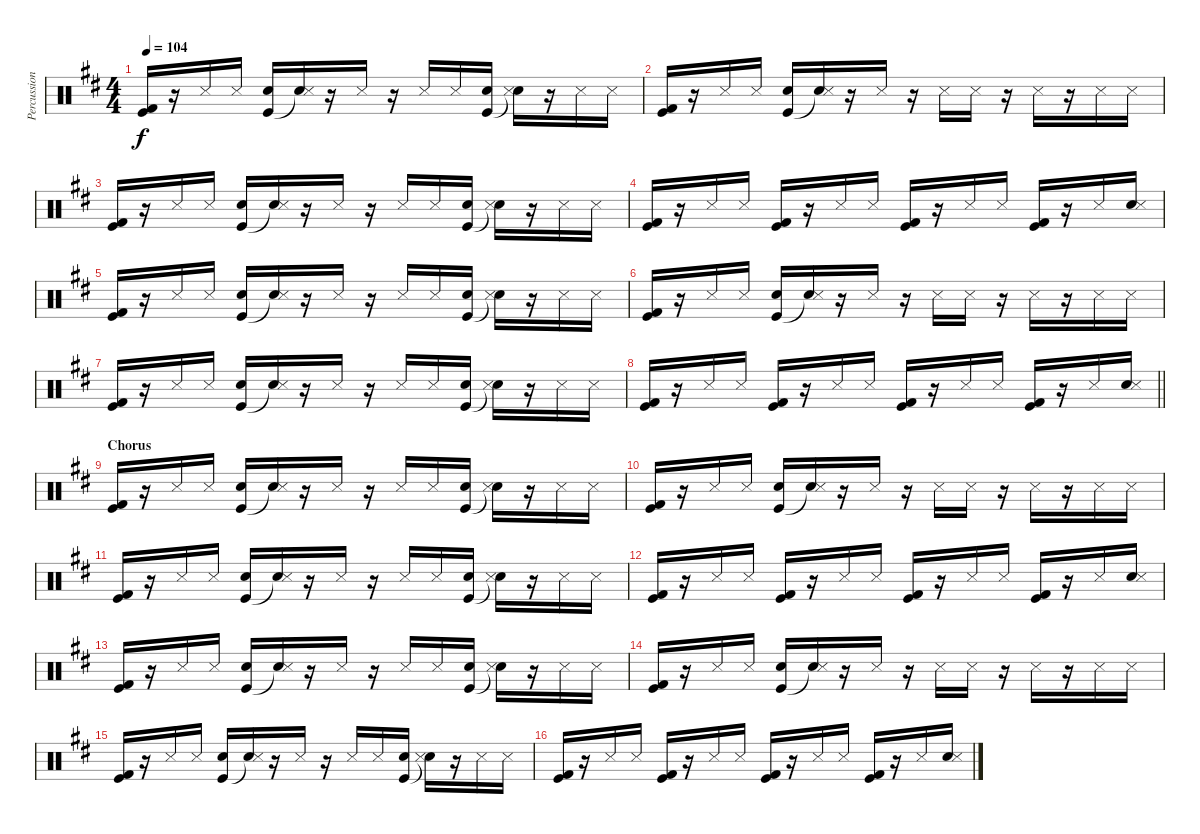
\track ("Percussion" "Percussion") {instrument percussion}
\staff {score}
\articulation defaults
\ts (4 4)
\tempo 104
\clef neutral
\ks d
("Kick (hit)" "Kick (hit) 2").16{dy f} r.16 "Snare (side stick) 3".16 "Snare (side stick) 3".16 ("Kick (hit)" "Electric Snare (hit)").16 ("Electric Snare (hit)"{t} "Snare (side stick) 3").16 r.16 "Snare (side stick) 3".16 r.16 "Snare (side stick) 3".16 "Snare (side stick) 3".16 ("Kick (hit)" "Electric Snare (hit)").16 ("Snare (hit)"{t} "Snare (side stick) 3").16 r.16 "Snare (side stick) 3".16 "Snare (side stick) 3".16 |
("Kick (hit)" "Kick (hit) 2").16 r.16 "Snare (side stick) 3".16 "Snare (side stick) 3".16 ("Kick (hit)" "Electric Snare (hit)").16 ("Electric Snare (hit)"{t} "Snare (side stick) 3").16 r.16 "Snare (side stick) 3".16 r.16 "Snare (side stick) 3".16 "Snare (side stick) 3".16 r.16 "Snare (side stick) 3".16 r.16 "Snare (side stick) 3".16 "Snare (side stick) 3".16 |
("Kick (hit)" "Kick (hit) 2").16 r.16 "Snare (side stick) 3".16 "Snare (side stick) 3".16 ("Kick (hit)" "Electric Snare (hit)").16 ("Electric Snare (hit)"{t} "Snare (side stick) 3").16 r.16 "Snare (side stick) 3".16 r.16 "Snare (side stick) 3".16 "Snare (side stick) 3".16 ("Kick (hit)" "Electric Snare (hit)").16 ("Snare (hit)"{t} "Snare (side stick) 3").16 r.16 "Snare (side stick) 3".16 "Snare (side stick) 3".16 |
("Kick (hit)" "Kick (hit) 2").16 r.16 "Snare (side stick) 3".16 "Snare (side stick) 3".16 ("Kick (hit)" "Kick (hit) 2").16 r.16 "Snare (side stick) 3".16 "Snare (side stick) 3".16 ("Kick (hit)" "Kick (hit) 2").16 r.16 "Snare (side stick) 3".16 "Snare (side stick) 3".16 ("Kick (hit)" "Kick (hit) 2").16 r.16 "Snare (side stick) 3".16 ("Electric Snare (hit)" "Snare (side stick) 3").16 |
("Kick (hit)" "Kick (hit) 2").16 r.16 "Snare (side stick) 3".16 "Snare (side stick) 3".16 ("Kick (hit)" "Electric Snare (hit)").16 ("Electric Snare (hit)"{t} "Snare (side stick) 3").16 r.16 "Snare (side stick) 3".16 r.16 "Snare (side stick) 3".16 "Snare (side stick) 3".16 ("Kick (hit)" "Electric Snare (hit)").16 ("Snare (hit)"{t} "Snare (side stick) 3").16 r.16 "Snare (side stick) 3".16 "Snare (side stick) 3".16 |
("Kick (hit)" "Kick (hit) 2").16 r.16 "Snare (side stick) 3".16 "Snare (side stick) 3".16 ("Kick (hit)" "Electric Snare (hit)").16 ("Electric Snare (hit)"{t} "Snare (side stick) 3").16 r.16 "Snare (side stick) 3".16 r.16 "Snare (side stick) 3".16 "Snare (side stick) 3".16 r.16 "Snare (side stick) 3".16 r.16 "Snare (side stick) 3".16 "Snare (side stick) 3".16 |
("Kick (hit)" "Kick (hit) 2").16 r.16 "Snare (side stick) 3".16 "Snare (side stick) 3".16 ("Kick (hit)" "Electric Snare (hit)").16 ("Electric Snare (hit)"{t} "Snare (side stick) 3").16 r.16 "Snare (side stick) 3".16 r.16 "Snare (side stick) 3".16 "Snare (side stick) 3".16 ("Kick (hit)" "Electric Snare (hit)").16 ("Snare (hit)"{t} "Snare (side stick) 3").16 r.16 "Snare (side stick) 3".16 "Snare (side stick) 3".16 |
\barLineRight lightlight
("Kick (hit)" "Kick (hit) 2").16 r.16 "Snare (side stick) 3".16 "Snare (side stick) 3".16 ("Kick (hit)" "Kick (hit) 2").16 r.16 "Snare (side stick) 3".16 "Snare (side stick) 3".16 ("Kick (hit)" "Kick (hit) 2").16 r.16 "Snare (side stick) 3".16 "Snare (side stick) 3".16 ("Kick (hit)" "Kick (hit) 2").16 r.16 "Snare (side stick) 3".16 ("Electric Snare (hit)" "Snare (side stick) 3").16 |
\section ("" "Chorus")
("Kick (hit)" "Kick (hit) 2").16 r.16 "Snare (side stick) 3".16 "Snare (side stick) 3".16 ("Kick (hit)" "Electric Snare (hit)").16 ("Electric Snare (hit)"{t} "Snare (side stick) 3").16 r.16 "Snare (side stick) 3".16 r.16 "Snare (side stick) 3".16 "Snare (side stick) 3".16 ("Kick (hit)" "Electric Snare (hit)").16 ("Snare (hit)"{t} "Snare (side stick) 3").16 r.16 "Snare (side stick) 3".16 "Snare (side stick) 3".16 |
("Kick (hit)" "Kick (hit) 2").16 r.16 "Snare (side stick) 3".16 "Snare (side stick) 3".16 ("Kick (hit)" "Electric Snare (hit)").16 ("Electric Snare (hit)"{t} "Snare (side stick) 3").16 r.16 "Snare (side stick) 3".16 r.16 "Snare (side stick) 3".16 "Snare (side stick) 3".16 r.16 "Snare (side stick) 3".16 r.16 "Snare (side stick) 3".16 "Snare (side stick) 3".16 |
("Kick (hit)" "Kick (hit) 2").16 r.16 "Snare (side stick) 3".16 "Snare (side stick) 3".16 ("Kick (hit)" "Electric Snare (hit)").16 ("Electric Snare (hit)"{t} "Snare (side stick) 3").16 r.16 "Snare (side stick) 3".16 r.16 "Snare (side stick) 3".16 "Snare (side stick) 3".16 ("Kick (hit)" "Electric Snare (hit)").16 ("Snare (hit)"{t} "Snare (side stick) 3").16 r.16 "Snare (side stick) 3".16 "Snare (side stick) 3".16 |
("Kick (hit)" "Kick (hit) 2").16 r.16 "Snare (side stick) 3".16 "Snare (side stick) 3".16 ("Kick (hit)" "Kick (hit) 2").16 r.16 "Snare (side stick) 3".16 "Snare (side stick) 3".16 ("Kick (hit)" "Kick (hit) 2").16 r.16 "Snare (side stick) 3".16 "Snare (side stick) 3".16 ("Kick (hit)" "Kick (hit) 2").16 r.16 "Snare (side stick) 3".16 ("Electric Snare (hit)" "Snare (side stick) 3").16 |
("Kick (hit)" "Kick (hit) 2").16 r.16 "Snare (side stick) 3".16 "Snare (side stick) 3".16 ("Kick (hit)" "Electric Snare (hit)").16 ("Electric Snare (hit)"{t} "Snare (side stick) 3").16 r.16 "Snare (side stick) 3".16 r.16 "Snare (side stick) 3".16 "Snare (side stick) 3".16 ("Kick (hit)" "Electric Snare (hit)").16 ("Snare (hit)"{t} "Snare (side stick) 3").16 r.16 "Snare (side stick) 3".16 "Snare (side stick) 3".16 |
("Kick (hit)" "Kick (hit) 2").16 r.16 "Snare (side stick) 3".16 "Snare (side stick) 3".16 ("Kick (hit)" "Electric Snare (hit)").16 ("Electric Snare (hit)"{t} "Snare (side stick) 3").16 r.16 "Snare (side stick) 3".16 r.16 "Snare (side stick) 3".16 "Snare (side stick) 3".16 r.16 "Snare (side stick) 3".16 r.16 "Snare (side stick) 3".16 "Snare (side stick) 3".16 |
("Kick (hit)" "Kick (hit) 2").16 r.16 "Snare (side stick) 3".16 "Snare (side stick) 3".16 ("Kick (hit)" "Electric Snare (hit)").16 ("Electric Snare (hit)"{t} "Snare (side stick) 3").16 r.16 "Snare (side stick) 3".16 r.16 "Snare (side stick) 3".16 "Snare (side stick) 3".16 ("Kick (hit)" "Electric Snare (hit)").16 ("Snare (hit)"{t} "Snare (side stick) 3").16 r.16 "Snare (side stick) 3".16 "Snare (side stick) 3".16 |
("Kick (hit)" "Kick (hit) 2").16 r.16 "Snare (side stick) 3".16 "Snare (side stick) 3".16 ("Kick (hit)" "Kick (hit) 2").16 r.16 "Snare (side stick) 3".16 "Snare (side stick) 3".16 ("Kick (hit)" "Kick (hit) 2").16 r.16 "Snare (side stick) 3".16 "Snare (side stick) 3".16 ("Kick (hit)" "Kick (hit) 2").16 r.16 "Snare (side stick) 3".16 ("Electric Snare (hit)" "Snare (side stick) 3").16
